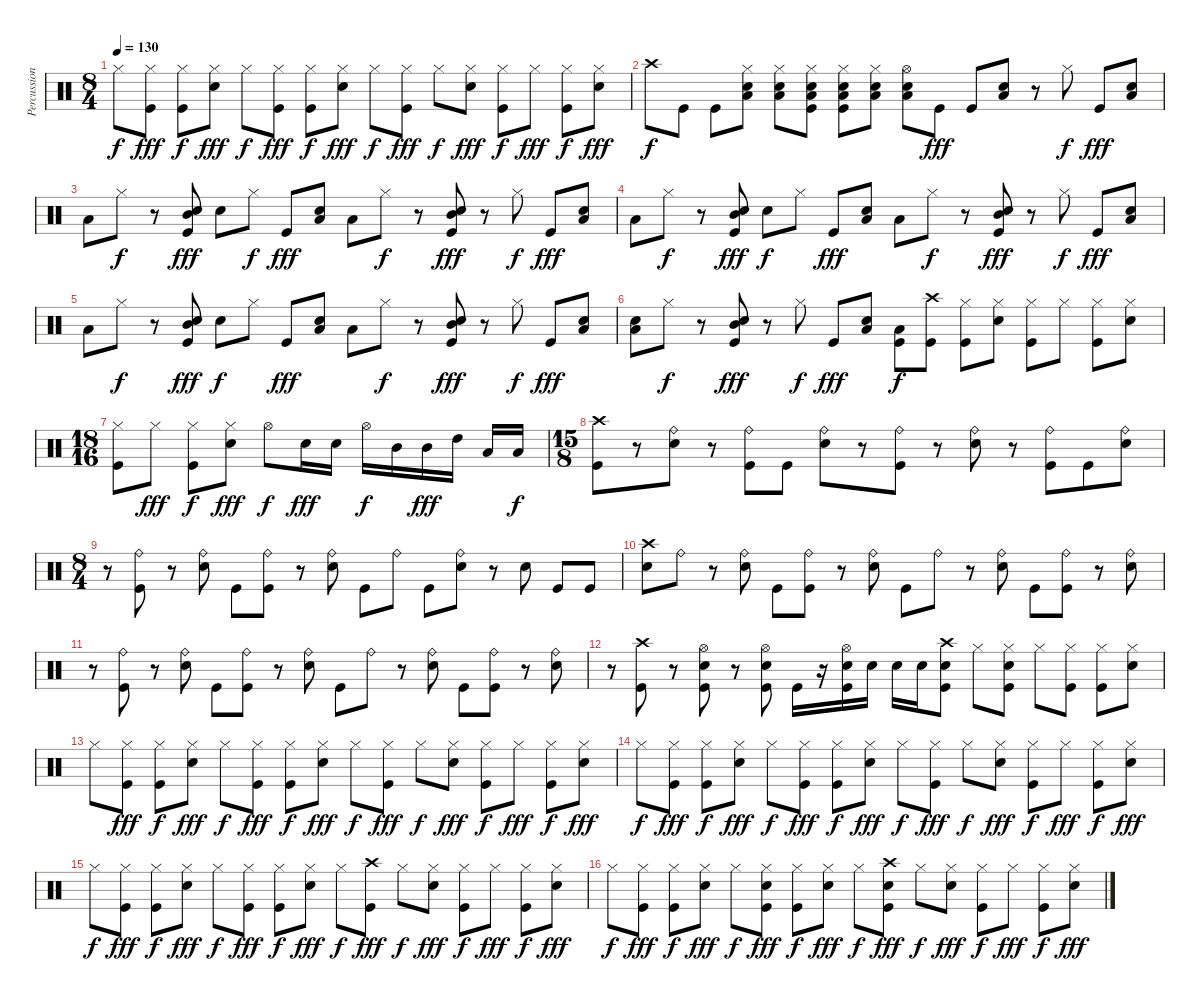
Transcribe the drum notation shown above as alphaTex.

\track ("Percussion" "Percussion") {instrument percussion}
\staff {score}
\articulation defaults
\ts (8 4)
\tempo 130
\clef neutral
\ks c "Hi-Hat (closed)".8{dy f}
("Hi-Hat (closed)" "Kick (hit)").8{dy fff} ("Hi-Hat (closed)" "Kick (hit)").8{dy f} ("Hi-Hat (closed)" "Electric Snare (hit)").8{dy fff} "Hi-Hat (closed)".8{dy f} ("Hi-Hat (closed)" "Kick (hit)").8{dy fff} ("Hi-Hat (closed)" "Kick (hit)").8{dy f} ("Hi-Hat (closed)" "Electric Snare (hit)").8{dy fff} "Hi-Hat (closed)".8{dy f} ("Hi-Hat (closed)" "Kick (hit)").8{dy fff} "Hi-Hat (closed)".8{dy f} ("Hi-Hat (closed)" "Electric Snare (hit)").8{dy fff} ("Hi-Hat (closed)" "Kick (hit)").8{dy f} "Hi-Hat (closed)".8{dy fff} ("Hi-Hat (closed)" "Kick (hit)").8{dy f} ("Hi-Hat (closed)" "Electric Snare (hit)").8{dy fff} |
"Crash high (hit)".8{dy f} "Kick (hit)".8 "Kick (hit)".8 ("Hi-Hat (closed)" "Low Floor Tom (hit)" "Electric Snare (hit)").8 ("Hi-Hat (closed)" "Low Floor Tom (hit)" "Electric Snare (hit)").8 ("Hi-Hat (closed)" "Low Floor Tom (hit)" "Electric Snare (hit)" "Kick (hit)").8 ("Hi-Hat (closed)" "Low Floor Tom (hit)" "Electric Snare (hit)" "Kick (hit)").8 ("Hi-Hat (closed)" "Low Floor Tom (hit)" "Electric Snare (hit)").8 ("Hi-Hat (open)" "Low Floor Tom (hit)" "Electric Snare (hit)").8 "Kick (hit)".8{dy fff} "Kick (hit)".8 ("Hand Clap (hit)" "Low Floor Tom (hit)").8 r.8 "Hi-Hat (closed)".8{dy f} "Kick (hit)".8{dy fff} ("Hand Clap (hit)" "Low Floor Tom (hit)").8 |
"Low Tom (hit)".8 "Hi-Hat (closed)".8{dy f} r.8 ("Mid Tom (hit)" "Hand Clap (hit)" "Kick (hit)").8{dy fff} "Hand Clap (hit)".8 "Hi-Hat (closed)".8{dy f} "Kick (hit)".8{dy fff} ("Hand Clap (hit)" "Low Floor Tom (hit)").8 "Low Tom (hit)".8 "Hi-Hat (closed)".8{dy f} r.8 ("Mid Tom (hit)" "Hand Clap (hit)" "Kick (hit)").8{dy fff} r.8 "Hi-Hat (closed)".8{dy f} "Kick (hit)".8{dy fff} ("Hand Clap (hit)" "Low Floor Tom (hit)").8 |
"Low Tom (hit)".8 "Hi-Hat (closed)".8{dy f} r.8 ("Mid Tom (hit)" "Hand Clap (hit)" "Kick (hit)").8{dy fff} "Hand Clap (hit)".8{dy f} "Hi-Hat (closed)".8 "Kick (hit)".8{dy fff} ("Hand Clap (hit)" "Low Floor Tom (hit)").8 "Low Tom (hit)".8 "Hi-Hat (closed)".8{dy f} r.8 ("Mid Tom (hit)" "Hand Clap (hit)" "Kick (hit)").8{dy fff} r.8 "Hi-Hat (closed)".8{dy f} "Kick (hit)".8{dy fff} ("Hand Clap (hit)" "Low Floor Tom (hit)").8 |
"Low Tom (hit)".8 "Hi-Hat (closed)".8{dy f} r.8 ("Mid Tom (hit)" "Hand Clap (hit)" "Kick (hit)").8{dy fff} "Hand Clap (hit)".8{dy f} "Hi-Hat (closed)".8 "Kick (hit)".8{dy fff} ("Hand Clap (hit)" "Low Floor Tom (hit)").8 "Low Tom (hit)".8 "Hi-Hat (closed)".8{dy f} r.8 ("Mid Tom (hit)" "Hand Clap (hit)" "Kick (hit)").8{dy fff} r.8 "Hi-Hat (closed)".8{dy f} "Kick (hit)".8{dy fff} ("Hand Clap (hit)" "Low Floor Tom (hit)").8 |
("Hand Clap (hit)" "Low Tom (hit)").8 "Hi-Hat (closed)".8{dy f} r.8 ("Mid Tom (hit)" "Hand Clap (hit)" "Kick (hit)").8{dy fff} r.8 "Hi-Hat (closed)".8{dy f} "Kick (hit)".8{dy fff} ("Hand Clap (hit)" "Low Floor Tom (hit)").8 ("Low Tom (hit)" "Kick (hit)").8{dy f} ("Crash high (hit)" "Kick (hit)").8 ("Hi-Hat (closed)" "Kick (hit)").8 ("Hi-Hat (closed)" "Electric Snare (hit)").8 ("Hi-Hat (closed)" "Kick (hit)").8 "Hi-Hat (closed)".8 ("Hi-Hat (closed)" "Kick (hit)").8 ("Hi-Hat (closed)" "Electric Snare (hit)").8 |
\ts (18 16)
("Hi-Hat (closed)" "Kick (hit)").8 "Hi-Hat (closed)".8{dy fff} ("Hi-Hat (closed)" "Kick (hit)").8{dy f} ("Hi-Hat (closed)" "Electric Snare (hit)").8{dy fff} "Hi-Hat (open)".8{dy f} "Electric Snare (hit)".16{dy fff} "Electric Snare (hit)".16 "Hi-Hat (open)".16{dy f} "Mid Tom (hit)".16 "Mid Tom (hit)".16{dy fff} "High Tom (hit)".16 "Low Floor Tom (hit)".16 "Low Tom (hit)".16{dy f} |
\ts (15 8)
("Crash high (hit)" "Kick (hit)").8 r.8 ("Ride (bell)" "Electric Snare (hit)").8 r.8 ("Ride (bell)" "Kick (hit)").8 "Kick (hit)".8 ("Ride (bell)" "Electric Snare (hit)").8 r.8 ("Ride (bell)" "Kick (hit)").8 r.8 ("Ride (bell)" "Electric Snare (hit)").8 r.8 ("Ride (bell)" "Kick (hit)").8 "Kick (hit)".8 ("Ride (bell)" "Electric Snare (hit)").8 |
\ts (8 4)
r.8 ("Ride (bell)" "Kick (hit)").8 r.8 ("Ride (bell)" "Electric Snare (hit)").8 "Kick (hit)".8 ("Ride (bell)" "Kick (hit)").8 r.8 ("Ride (bell)" "Electric Snare (hit)").8 "Kick (hit)".8 "Ride (bell)".8 "Kick (hit)".8 ("Ride (bell)" "Electric Snare (hit)").8 r.8 "Electric Snare (hit)".8 "Kick (hit)".8 "Kick (hit)".8 |
("Crash high (hit)" "Electric Snare (hit)").8 "Ride (bell)".8 r.8 ("Ride (bell)" "Electric Snare (hit)").8 "Kick (hit)".8 ("Ride (bell)" "Kick (hit)").8 r.8 ("Ride (bell)" "Electric Snare (hit)").8 "Kick (hit)".8 "Ride (bell)".8 r.8 ("Ride (bell)" "Electric Snare (hit)").8 "Kick (hit)".8 ("Ride (bell)" "Kick (hit)").8 r.8 ("Ride (bell)" "Electric Snare (hit)").8 |
r.8 ("Ride (bell)" "Kick (hit)").8 r.8 ("Ride (bell)" "Electric Snare (hit)").8 "Kick (hit)".8 ("Ride (bell)" "Kick (hit)").8 r.8 ("Ride (bell)" "Electric Snare (hit)").8 "Kick (hit)".8 "Ride (bell)".8 r.8 ("Ride (bell)" "Electric Snare (hit)").8 "Kick (hit)".8 ("Ride (bell)" "Kick (hit)").8 r.8 ("Ride (bell)" "Electric Snare (hit)").8 |
r.8 ("Crash high (hit)" "Kick (hit)").8 r.8 ("Hi-Hat (open)" "Electric Snare (hit)" "Kick (hit)").8 r.8 ("Hi-Hat (open)" "Electric Snare (hit)" "Kick (hit)").8 "Kick (hit)".16 r.16 ("Hi-Hat (open)" "Electric Snare (hit)" "Kick (hit)").16 "Electric Snare (hit)".16 "Electric Snare (hit)".16 "Electric Snare (hit)".16 ("Crash high (hit)" "Electric Snare (hit)" "Kick (hit)").8 "Hi-Hat (closed)".8 ("Hi-Hat (closed)" "Electric Snare (hit)" "Kick (hit)").8 "Hi-Hat (closed)".8 ("Hi-Hat (closed)" "Kick (hit)").8 ("Hi-Hat (closed)" "Kick (hit)").8 ("Hi-Hat (closed)" "Electric Snare (hit)").8 |
"Hi-Hat (closed)".8 ("Hi-Hat (closed)" "Kick (hit)").8{dy fff} ("Hi-Hat (closed)" "Kick (hit)").8{dy f} ("Hi-Hat (closed)" "Electric Snare (hit)").8{dy fff} "Hi-Hat (closed)".8{dy f} ("Hi-Hat (closed)" "Kick (hit)").8{dy fff} ("Hi-Hat (closed)" "Kick (hit)").8{dy f} ("Hi-Hat (closed)" "Electric Snare (hit)").8{dy fff} "Hi-Hat (closed)".8{dy f} ("Hi-Hat (closed)" "Kick (hit)").8{dy fff} "Hi-Hat (closed)".8{dy f} ("Hi-Hat (closed)" "Electric Snare (hit)").8{dy fff} ("Hi-Hat (closed)" "Kick (hit)").8{dy f} "Hi-Hat (closed)".8{dy fff} ("Hi-Hat (closed)" "Kick (hit)").8{dy f} ("Hi-Hat (closed)" "Electric Snare (hit)").8{dy fff} |
"Hi-Hat (closed)".8{dy f} ("Hi-Hat (closed)" "Kick (hit)").8{dy fff} ("Hi-Hat (closed)" "Kick (hit)").8{dy f} ("Hi-Hat (closed)" "Electric Snare (hit)").8{dy fff} "Hi-Hat (closed)".8{dy f} ("Hi-Hat (closed)" "Kick (hit)").8{dy fff} ("Hi-Hat (closed)" "Kick (hit)").8{dy f} ("Hi-Hat (closed)" "Electric Snare (hit)").8{dy fff} "Hi-Hat (closed)".8{dy f} ("Hi-Hat (closed)" "Kick (hit)").8{dy fff} "Hi-Hat (closed)".8{dy f} ("Hi-Hat (closed)" "Electric Snare (hit)").8{dy fff} ("Hi-Hat (closed)" "Kick (hit)").8{dy f} "Hi-Hat (closed)".8{dy fff} ("Hi-Hat (closed)" "Kick (hit)").8{dy f} ("Hi-Hat (closed)" "Electric Snare (hit)").8{dy fff} |
"Hi-Hat (closed)".8{dy f} ("Hi-Hat (closed)" "Kick (hit)").8{dy fff} ("Hi-Hat (closed)" "Kick (hit)").8{dy f} ("Hi-Hat (closed)" "Electric Snare (hit)").8{dy fff} "Hi-Hat (closed)".8{dy f} ("Hi-Hat (closed)" "Kick (hit)").8{dy fff} ("Hi-Hat (closed)" "Kick (hit)").8{dy f} ("Hi-Hat (closed)" "Electric Snare (hit)").8{dy fff} "Hi-Hat (closed)".8{dy f} ("Crash high (hit)" "Kick (hit)").8{dy fff} "Hi-Hat (closed)".8{dy f} ("Hi-Hat (closed)" "Electric Snare (hit)").8{dy fff} ("Hi-Hat (closed)" "Kick (hit)").8{dy f} "Hi-Hat (closed)".8{dy fff} ("Hi-Hat (closed)" "Kick (hit)").8{dy f} ("Hi-Hat (closed)" "Electric Snare (hit)").8{dy fff} |
"Hi-Hat (closed)".8{dy f} ("Hi-Hat (closed)" "Kick (hit)").8{dy fff} ("Hi-Hat (closed)" "Kick (hit)").8{dy f} ("Hi-Hat (closed)" "Electric Snare (hit)").8{dy fff} "Hi-Hat (closed)".8{dy f} ("Hi-Hat (closed)" "Electric Snare (hit)" "Kick (hit)").8{dy fff} ("Hi-Hat (closed)" "Kick (hit)").8{dy f} ("Hi-Hat (closed)" "Electric Snare (hit)").8{dy fff} "Hi-Hat (closed)".8{dy f} ("Crash high (hit)" "Electric Snare (hit)" "Kick (hit)").8{dy fff} "Hi-Hat (closed)".8{dy f} ("Hi-Hat (closed)" "Electric Snare (hit)").8{dy fff} ("Hi-Hat (closed)" "Kick (hit)").8{dy f} "Hi-Hat (closed)".8{dy fff} ("Hi-Hat (closed)" "Kick (hit)").8{dy f} ("Hi-Hat (closed)" "Electric Snare (hit)").8{dy fff}
